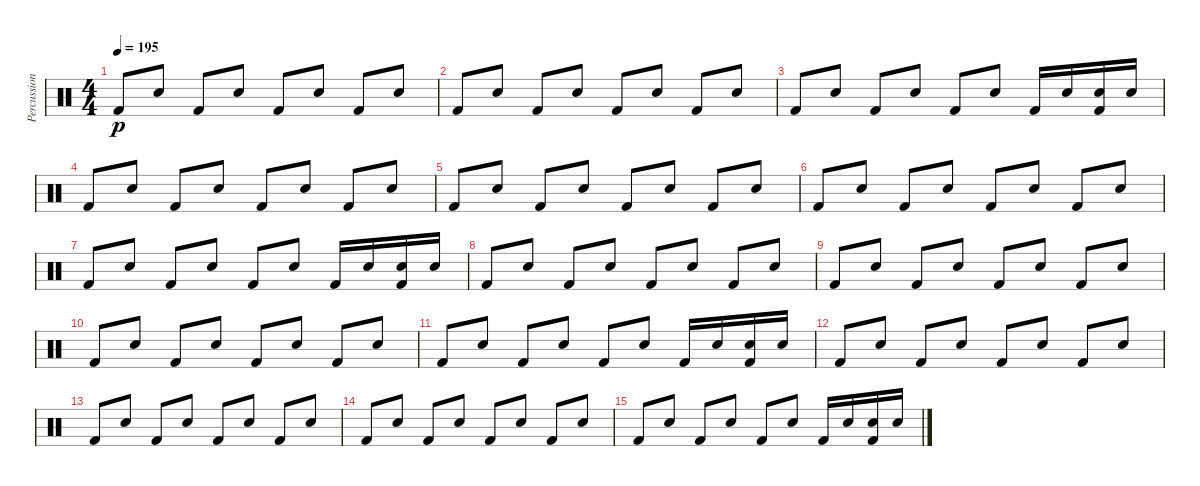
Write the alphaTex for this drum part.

\track ("Percussion" "Percussion") {instrument percussion}
\staff {score}
\articulation defaults
\ts (4 4)
\tempo 195
\clef neutral
\ks c "Kick (hit) 2".8{dy p} "Snare (hit) 2".8 "Kick (hit) 2".8 "Snare (hit) 2".8 "Kick (hit) 2".8 "Snare (hit) 2".8 "Kick (hit) 2".8 "Snare (hit) 2".8
|
"Kick (hit) 2".8 "Snare (hit) 2".8 "Kick (hit) 2".8 "Snare (hit) 2".8 "Kick (hit) 2".8 "Snare (hit) 2".8 "Kick (hit) 2".8 "Snare (hit) 2".8 |
"Kick (hit) 2".8 "Snare (hit) 2".8 "Kick (hit) 2".8 "Snare (hit) 2".8 "Kick (hit) 2".8 "Snare (hit) 2".8 "Kick (hit) 2".16 "Snare (hit) 2".16 ("Kick (hit) 2" "Snare (hit) 2").16 "Snare (hit) 2".16 |
"Kick (hit) 2".8 "Snare (hit) 2".8 "Kick (hit) 2".8 "Snare (hit) 2".8 "Kick (hit) 2".8 "Snare (hit) 2".8 "Kick (hit) 2".8 "Snare (hit) 2".8 |
"Kick (hit) 2".8 "Snare (hit) 2".8 "Kick (hit) 2".8 "Snare (hit) 2".8 "Kick (hit) 2".8 "Snare (hit) 2".8 "Kick (hit) 2".8 "Snare (hit) 2".8 |
"Kick (hit) 2".8 "Snare (hit) 2".8 "Kick (hit) 2".8 "Snare (hit) 2".8 "Kick (hit) 2".8 "Snare (hit) 2".8 "Kick (hit) 2".8 "Snare (hit) 2".8 |
"Kick (hit) 2".8 "Snare (hit) 2".8 "Kick (hit) 2".8 "Snare (hit) 2".8 "Kick (hit) 2".8 "Snare (hit) 2".8 "Kick (hit) 2".16 "Snare (hit) 2".16 ("Kick (hit) 2" "Snare (hit) 2").16 "Snare (hit) 2".16 |
"Kick (hit) 2".8 "Snare (hit) 2".8 "Kick (hit) 2".8 "Snare (hit) 2".8 "Kick (hit) 2".8 "Snare (hit) 2".8 "Kick (hit) 2".8 "Snare (hit) 2".8 |
"Kick (hit) 2".8 "Snare (hit) 2".8 "Kick (hit) 2".8 "Snare (hit) 2".8 "Kick (hit) 2".8 "Snare (hit) 2".8 "Kick (hit) 2".8 "Snare (hit) 2".8 |
"Kick (hit) 2".8 "Snare (hit) 2".8 "Kick (hit) 2".8 "Snare (hit) 2".8 "Kick (hit) 2".8 "Snare (hit) 2".8 "Kick (hit) 2".8 "Snare (hit) 2".8 |
"Kick (hit) 2".8 "Snare (hit) 2".8 "Kick (hit) 2".8 "Snare (hit) 2".8 "Kick (hit) 2".8 "Snare (hit) 2".8 "Kick (hit) 2".16 "Snare (hit) 2".16 ("Kick (hit) 2" "Snare (hit) 2").16 "Snare (hit) 2".16 |
"Kick (hit) 2".8 "Snare (hit) 2".8 "Kick (hit) 2".8 "Snare (hit) 2".8 "Kick (hit) 2".8 "Snare (hit) 2".8 "Kick (hit) 2".8 "Snare (hit) 2".8 |
"Kick (hit) 2".8 "Snare (hit) 2".8 "Kick (hit) 2".8 "Snare (hit) 2".8 "Kick (hit) 2".8 "Snare (hit) 2".8 "Kick (hit) 2".8 "Snare (hit) 2".8 |
"Kick (hit) 2".8 "Snare (hit) 2".8 "Kick (hit) 2".8 "Snare (hit) 2".8 "Kick (hit) 2".8 "Snare (hit) 2".8 "Kick (hit) 2".8 "Snare (hit) 2".8 |
"Kick (hit) 2".8 "Snare (hit) 2".8 "Kick (hit) 2".8 "Snare (hit) 2".8 "Kick (hit) 2".8 "Snare (hit) 2".8 "Kick (hit) 2".16 "Snare (hit) 2".16 ("Kick (hit) 2" "Snare (hit) 2").16 "Snare (hit) 2".16
